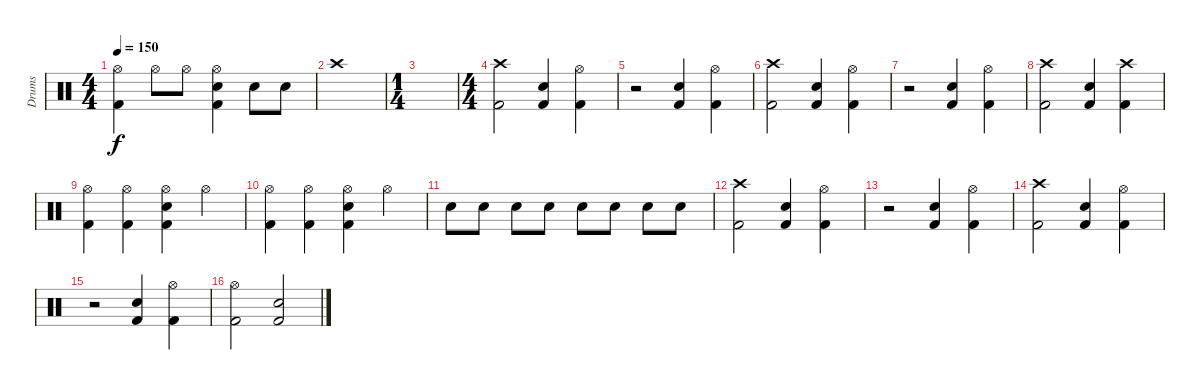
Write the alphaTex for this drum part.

\track ("Drums" "Drums") {instrument percussion}
\staff {score}
\articulation defaults
\ts (4 4)
\tempo 150
\clef neutral
\ks c
("Hi-Hat (open)" "Kick (hit) 2").4{dy f} "Hi-Hat (open)".8 "Hi-Hat (open)".8 ("Hi-Hat (open)" "Electric Snare (hit)" "Kick (hit) 2").4 "Snare (hit) 2".8 "Snare (hit) 2".8 |
"Crash high (hit)".1 |
\ts (1 4)
|
\ts (4 4)
("Crash high (hit)" "Kick (hit) 2").2{volume 16} ("Electric Snare (hit)" "Kick (hit) 2").4 ("Hi-Hat (open)" "Kick (hit) 2").4 |
r.2 ("Electric Snare (hit)" "Kick (hit) 2").4 ("Hi-Hat (open)" "Kick (hit) 2").4 |
("Crash high (hit)" "Kick (hit) 2").2 ("Electric Snare (hit)" "Kick (hit) 2").4 ("Hi-Hat (open)" "Kick (hit) 2").4 |
r.2 ("Electric Snare (hit)" "Kick (hit) 2").4 ("Hi-Hat (open)" "Kick (hit) 2").4 |
("Crash high (hit)" "Kick (hit) 2").2 ("Electric Snare (hit)" "Kick (hit) 2").4 ("Crash high (hit)" "Kick (hit) 2").4 |
("Hi-Hat (open)" "Kick (hit) 2").4 ("Hi-Hat (open)" "Kick (hit) 2").4 ("Hi-Hat (open)" "Electric Snare (hit)" "Kick (hit) 2").4 "Hi-Hat (open)".4 |
("Hi-Hat (open)" "Kick (hit) 2").4 ("Hi-Hat (open)" "Kick (hit) 2").4 ("Hi-Hat (open)" "Electric Snare (hit)" "Kick (hit) 2").4 "Hi-Hat (open)".4 |
"Electric Snare (hit)".8 "Electric Snare (hit)".8 "Electric Snare (hit)".8 "Electric Snare (hit)".8 "Snare (hit) 2".8 "Snare (hit) 2".8 "Snare (hit) 2".8 "Snare (hit) 2".8 |
("Crash high (hit)" "Kick (hit) 2").2 ("Electric Snare (hit)" "Kick (hit) 2").4 ("Hi-Hat (open)" "Kick (hit) 2").4 |
r.2 ("Electric Snare (hit)" "Kick (hit) 2").4 ("Hi-Hat (open)" "Kick (hit) 2").4 |
("Crash high (hit)" "Kick (hit) 2").2 ("Electric Snare (hit)" "Kick (hit) 2").4 ("Hi-Hat (open)" "Kick (hit) 2").4 |
r.2 ("Electric Snare (hit)" "Kick (hit) 2").4 ("Hi-Hat (open)" "Kick (hit) 2").4 |
("Hi-Hat (open)" "Kick (hit) 2").2 ("Electric Snare (hit)" "Kick (hit) 2").2
